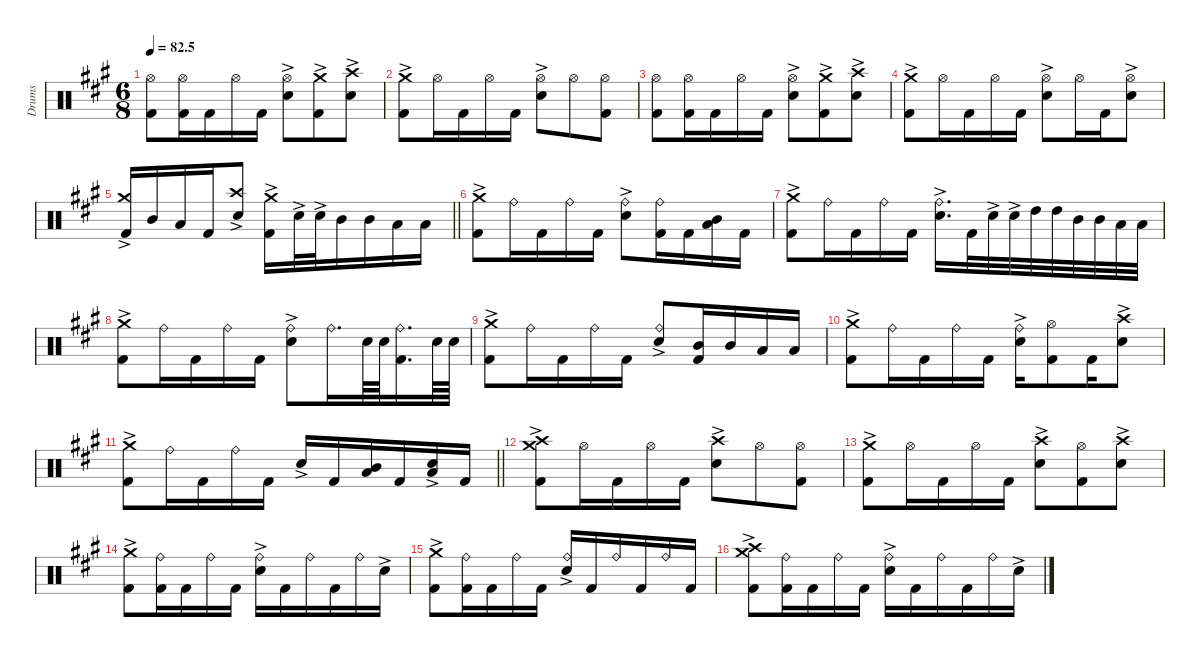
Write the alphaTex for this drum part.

\defaultSystemsLayout 4
\hideDynamics
\bracketExtendMode nobrackets
\otherSystemsTrackNameOrientation horizontal
\track ("Drumkit-show" "Drums") {defaultSystemsLayout 4 mute instrument percussion}
\staff {score}
\articulation defaults
\ts (6 8)
\tempo
82.5
\accidentals auto
\clef neutral
\ottava regular
\simile none
\ks a
("Hi-Hat (open)"{acc forcenatural} "Kick (hit) 2"{acc forcenatural}).8{dy f beam Down} ("Hi-Hat (open)"{acc forcenatural} "Kick (hit) 2"{acc forcenatural}).16{beam Down} "Kick (hit) 2"{acc forcenatural}.16{beam Down} "Hi-Hat (open)"{acc forcenatural}.16{beam Down} "Kick (hit) 2"{acc forcenatural}.16{beam Down} ("Snare (hit) 2"{ac acc forcenatural} "Hi-Hat (open)"{acc forcenatural}).8{beam Down} ("Kick (hit) 2"{acc forcenatural} "Crash medium (hit)"{ac acc forcenatural}).8{beam Down} ("Snare (hit) 2"{ac acc forcenatural} "Crash high (hit)"{acc forcenatural}).8{beam Down} |
("Crash medium (hit)"{ac acc forcenatural} "Kick (hit) 2"{acc forcenatural}).8{beam Down} "Hi-Hat (open)"{acc forcenatural}.16{beam Down} "Kick (hit) 2"{acc forcenatural}.16{beam Down} "Hi-Hat (open)"{acc forcenatural}.16{beam Down} "Kick (hit) 2"{acc forcenatural}.16{beam Down} ("Hi-Hat (open)"{acc forcenatural} "Snare (hit) 2"{ac acc forcenatural}).8{beam Down} "Hi-Hat (open)"{acc forcenatural}.8{beam Down} ("Hi-Hat (open)"{acc forcenatural} "Kick (hit) 2"{acc forcenatural}).8{beam Down} |
("Hi-Hat (open)"{acc forcenatural} "Kick (hit) 2"{acc forcenatural}).8{beam Down} ("Hi-Hat (open)"{acc forcenatural} "Kick (hit) 2"{acc forcenatural}).16{beam Down} "Kick (hit) 2"{acc forcenatural}.16{beam Down} "Hi-Hat (open)"{acc forcenatural}.16{beam Down} "Kick (hit) 2"{acc forcenatural}.16{beam Down} ("Snare (hit) 2"{ac acc forcenatural} "Hi-Hat (open)"{acc forcenatural}).8{beam Down} ("Kick (hit) 2"{acc forcenatural} "Crash medium (hit)"{ac acc forcenatural}).8{beam Down} ("Snare (hit) 2"{ac acc forcenatural} "Crash high (hit)"{acc forcenatural}).8{beam Down} |
("Crash medium (hit)"{ac acc forcenatural} "Kick (hit) 2"{acc forcenatural}).8{beam Down} "Hi-Hat (open)"{acc forcenatural}.16{beam Down} "Kick (hit) 2"{acc forcenatural}.16{beam Down} "Hi-Hat (open)"{acc forcenatural}.16{beam Down} "Kick (hit) 2"{acc forcenatural}.16{beam Down} ("Hi-Hat (open)"{acc forcenatural} "Snare (hit) 2"{ac acc forcenatural}).8{beam Down} "Hi-Hat (open)"{acc forcenatural}.16{beam Down} "Kick (hit) 2"{acc forcenatural}.16{beam Down} ("Hi-Hat (open)"{acc forcenatural} "Snare (hit) 2"{ac acc forcenatural}).8{beam Down} |
\barLineRight lightlight
("Crash medium (hit)"{ac acc forcenatural} "Kick (hit) 2"{acc forcenatural}).16{beam Up} "Mid Tom (hit)"{acc forcenatural}.16{beam Up} "Low Tom (hit)"{acc forcenatural}.16{beam Up} "Kick (hit) 2"{acc forcenatural}.16{beam Up} ("Crash high (hit)"{acc forcenatural} "Snare (hit) 2"{ac acc forcenatural}).8{beam Up} ("Crash medium (hit)"{ac acc forcenatural} "Kick (hit) 2"{acc forcenatural}).16{beam Down} "Snare (hit) 2"{ac acc forcenatural}.32{beam Down} "Snare (hit) 2"{ac acc forcenatural}.32{beam Down} "Mid Tom (hit)"{acc forcenatural}.16{beam Down} "Mid Tom (hit)"{acc forcenatural}.16{beam Down} "Low Tom (hit)"{acc forcenatural}.16{beam Down} "Low Tom (hit)"{acc forcenatural}.16{beam Down} |
("Crash medium (hit)"{ac acc forcenatural} "Kick (hit) 2"{acc forcenatural}).8{beam Down} "Ride (bell)"{acc forcenatural}.16{beam Down} "Kick (hit) 2"{acc forcenatural}.16{beam Down} "Ride (bell)"{acc forcenatural}.16{beam Down} "Kick (hit) 2"{acc forcenatural}.16{beam Down} ("Ride (bell)"{acc forcenatural} "Snare (hit) 2"{ac acc forcenatural}).8{beam Down} ("Ride (bell)"{acc forcenatural} "Kick (hit) 2"{acc forcenatural}).16{beam Down} "Kick (hit) 2"{acc forcenatural}.16{beam Down} ("Mid Tom (hit)"{acc forcenatural} "Low Tom (hit)"{acc forcenatural}).16{beam Down} "Kick (hit) 2"{acc forcenatural}.16{beam Down} |
("Crash medium (hit)"{ac acc forcenatural} "Kick (hit) 2"{acc forcenatural}).8{beam Down} "Ride (bell)"{acc forcenatural}.16{beam Down} "Kick (hit) 2"{acc forcenatural}.16{beam Down} "Ride (bell)"{acc forcenatural}.16{beam Down} "Kick (hit) 2"{acc forcenatural}.16{beam Down} ("Ride (bell)"{acc forcenatural} "Snare (hit) 2"{ac acc forcenatural}).16{d beam Down} "Kick (hit) 2"{acc forcenatural}.32{beam Down} "Snare (hit) 2"{ac acc forcenatural}.32{beam Down} "Snare (hit) 2"{ac acc forcenatural}.32{beam Down} "High Tom (hit)"{acc forcenatural}.32{beam Down} "High Tom (hit)"{acc forcenatural}.32{beam Down} "Mid Tom (hit)"{acc forcenatural}.32{beam Down} "Mid Tom (hit)"{acc forcenatural}.32{beam Down} "Low Tom (hit)"{acc forcenatural}.32{beam Down} "Low Tom (hit)"{acc forcenatural}.32{beam Down} |
("Crash medium (hit)"{ac acc forcenatural} "Kick (hit) 2"{acc forcenatural}).8{beam Down} "Ride (bell)"{acc forcenatural}.16{beam Down} "Kick (hit) 2"{acc forcenatural}.16{beam Down} "Ride (bell)"{acc forcenatural}.16{beam Down} "Kick (hit) 2"{acc forcenatural}.16{beam Down} ("Ride (bell)"{acc forcenatural} "Snare (hit) 2"{ac acc forcenatural}).8{beam Down} "Ride (bell)"{acc forcenatural}.16{d beam Down} "Snare (hit) 2"{acc forcenatural}.64{beam Down} "Snare (hit) 2"{acc forcenatural}.64{beam Down} ("Ride (bell)"{acc forcenatural} "Kick (hit) 2"{acc forcenatural}).16{d beam Down} "Snare (hit) 2"{acc forcenatural}.64{beam Down} "Snare (hit) 2"{acc forcenatural}.64{beam Down} |
("Crash medium (hit)"{ac acc forcenatural} "Kick (hit) 2"{acc forcenatural}).8{beam Down} "Ride (bell)"{acc forcenatural}.16{beam Down} "Kick (hit) 2"{acc forcenatural}.16{beam Down} "Ride (bell)"{acc forcenatural}.16{beam Down} "Kick (hit) 2"{acc forcenatural}.16{beam Down} ("Ride (bell)"{acc forcenatural} "Snare (hit) 2"{ac acc forcenatural}).8{beam Up} ("Mid Tom (hit)"{acc forcenatural} "Kick (hit) 2"{acc forcenatural}).16{beam Up} "Mid Tom (hit)"{acc forcenatural}.16{beam Up} "Low Tom (hit)"{acc forcenatural}.16{beam Up} "Low Tom (hit)"{acc forcenatural}.16{beam Up} |
("Crash medium (hit)"{ac acc forcenatural} "Kick (hit) 2"{acc forcenatural}).8{beam Down} "Ride (bell)"{acc forcenatural}.16{beam Down} "Kick (hit) 2"{acc forcenatural}.16{beam Down} "Ride (bell)"{acc forcenatural}.16{beam Down} "Kick (hit) 2"{acc forcenatural}.16{beam Down} ("Ride (bell)"{acc forcenatural} "Snare (hit) 2"{ac acc forcenatural}).16{beam Down} ("Hi-Hat (open)"{acc forcenatural} "Kick (hit) 2"{acc forcenatural}).8{beam Down} "Kick (hit) 2"{acc forcenatural}.16{beam Down} ("Crash high (hit)"{acc forcenatural} "Snare (hit) 2"{ac acc forcenatural}).8{beam Down} |
\barLineRight lightlight
("Crash medium (hit)"{ac acc forcenatural} "Kick (hit) 2"{acc forcenatural}).8{beam Down} "Ride (bell)"{acc forcenatural}.16{beam Down} "Kick (hit) 2"{acc forcenatural}.16{beam Down} "Ride (bell)"{acc forcenatural}.16{beam Down} "Kick (hit) 2"{acc forcenatural}.16{beam Down} "Snare (hit) 2"{ac acc forcenatural}.16{beam Up} "Kick (hit) 2"{acc forcenatural}.16{beam Up} ("Mid Tom (hit)"{acc forcenatural} "Low Tom (hit)"{acc forcenatural}).16{beam Up} "Kick (hit) 2"{acc forcenatural}.16{beam Up} ("Snare (hit) 2"{ac acc forcenatural} "Low Tom (hit)"{acc forcenatural}).16{beam Up} "Kick (hit) 2"{acc forcenatural}.16{beam Up} |
("Crash medium (hit)"{ac acc forcenatural} "Crash high (hit)"{acc forcenatural} "Kick (hit) 2"{acc forcenatural}).8{beam Down} "Hi-Hat (open)"{acc forcenatural}.16{beam Down} "Kick (hit) 2"{acc forcenatural}.16{beam Down} "Hi-Hat (open)"{acc forcenatural}.16{beam Down} "Kick (hit) 2"{acc forcenatural}.16{beam Down} ("Crash high (hit)"{acc forcenatural} "Snare (hit) 2"{ac acc forcenatural}).8{beam Down} "Hi-Hat (open)"{acc forcenatural}.8{beam Down} ("Hi-Hat (open)"{acc forcenatural} "Kick (hit) 2"{acc forcenatural}).8{beam Down} |
("Crash medium (hit)"{ac acc forcenatural} "Kick (hit) 2"{acc forcenatural}).8{beam Down} "Hi-Hat (open)"{acc forcenatural}.16{beam Down} "Kick (hit) 2"{acc forcenatural}.16{beam Down} "Hi-Hat (open)"{acc forcenatural}.16{beam Down} "Kick (hit) 2"{acc forcenatural}.16{beam Down} ("Crash high (hit)"{acc forcenatural} "Snare (hit) 2"{ac acc forcenatural}).8{beam Down} ("Hi-Hat (open)"{acc forcenatural} "Kick (hit) 2"{acc forcenatural}).8{beam Down} ("Snare (hit) 2"{ac acc forcenatural} "Crash high (hit)"{acc forcenatural}).8{beam Down} |
("Crash medium (hit)"{ac acc forcenatural} "Kick (hit) 2"{acc forcenatural}).8{beam Down} ("Ride (bell)"{acc forcenatural} "Kick (hit) 2"{acc forcenatural}).16{beam Down} "Kick (hit) 2"{acc forcenatural}.16{beam Down} "Ride (bell)"{acc forcenatural}.16{beam Down} "Kick (hit) 2"{acc forcenatural}.16{beam Down} ("Ride (bell)"{acc forcenatural} "Snare (hit) 2"{ac acc forcenatural}).16{beam Down} "Kick (hit) 2"{acc forcenatural}.16{beam Down} "Ride (bell)"{acc forcenatural}.16{beam Down} "Kick (hit) 2"{acc forcenatural}.16{beam Down} "Ride (bell)"{acc forcenatural}.16{beam Down} "Snare (hit) 2"{ac acc forcenatural}.16{beam Down} |
("Crash medium (hit)"{ac acc forcenatural} "Kick (hit) 2"{acc forcenatural}).8{beam Down} ("Ride (bell)"{acc forcenatural} "Kick (hit) 2"{acc forcenatural}).16{beam Down} "Kick (hit) 2"{acc forcenatural}.16{beam Down} "Ride (bell)"{acc forcenatural}.16{beam Down} "Kick (hit) 2"{acc forcenatural}.16{beam Down} ("Ride (bell)"{acc forcenatural} "Snare (hit) 2"{ac acc forcenatural}).16{beam Up} "Kick (hit) 2"{acc forcenatural}.16{beam Up} "Ride (bell)"{acc forcenatural}.16{beam Up} "Kick (hit) 2"{acc forcenatural}.16{beam Up} "Ride (bell)"{acc forcenatural}.16{beam Up} "Kick (hit) 2"{acc forcenatural}.16{beam Up} |
("Crash medium (hit)"{ac acc forcenatural} "Crash high (hit)"{acc forcenatural} "Kick (hit) 2"{acc forcenatural}).8{beam Down} ("Ride (bell)"{acc forcenatural} "Kick (hit) 2"{acc forcenatural}).16{beam Down} "Kick (hit) 2"{acc forcenatural}.16{beam Down} "Ride (bell)"{acc forcenatural}.16{beam Down} "Kick (hit) 2"{acc forcenatural}.16{beam Down} ("Ride (bell)"{acc forcenatural} "Snare (hit) 2"{ac acc forcenatural}).16{beam Down} "Kick (hit) 2"{acc forcenatural}.16{beam Down} "Ride (bell)"{acc forcenatural}.16{beam Down} "Kick (hit) 2"{acc forcenatural}.16{beam Down} "Ride (bell)"{acc forcenatural}.16{beam Down} "Snare (hit) 2"{ac acc forcenatural}.16{beam Down}
